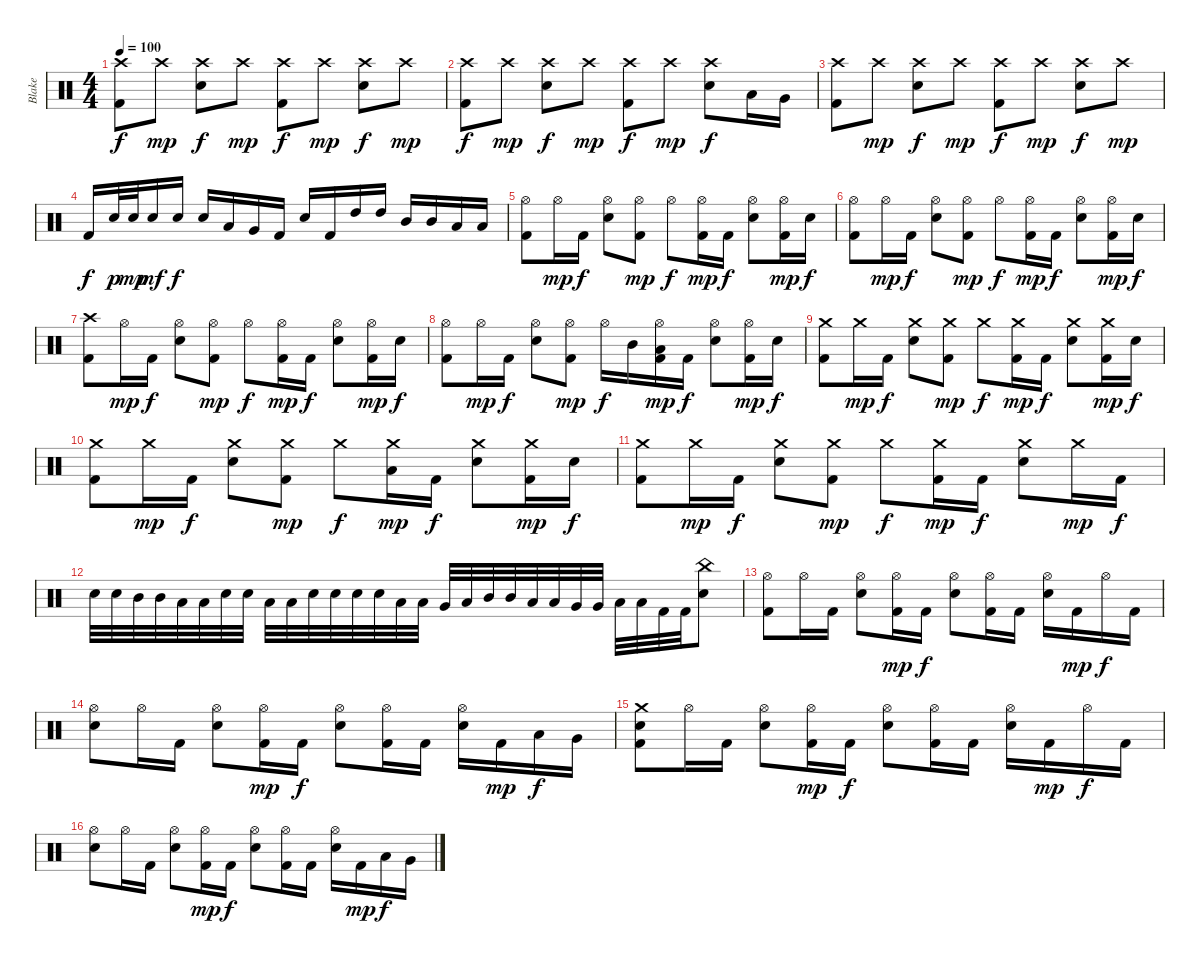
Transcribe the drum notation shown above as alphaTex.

\track ("Blake" "Blake") {instrument percussion}
\staff {score}
\articulation defaults
\ts (4 4)
\tempo 100
\clef neutral
\ks c
("Crash high (hit)" "Kick (hit) 2").8{dy f} "Crash high (hit)".8{dy mp} ("Crash high (hit)" "Snare (hit) 2").8{dy f} "Crash high (hit)".8{dy mp} ("Crash high (hit)" "Kick (hit) 2").8{dy f} "Crash high (hit)".8{dy mp} ("Crash high (hit)" "Snare (hit) 2").8{dy f} "Crash high (hit)".8{dy mp} |
("Crash high (hit)" "Kick (hit) 2").8{dy f} "Crash high (hit)".8{dy mp} ("Crash high (hit)" "Snare (hit) 2").8{dy f} "Crash high (hit)".8{dy mp} ("Crash high (hit)" "Kick (hit) 2").8{dy f} "Crash high (hit)".8{dy mp} ("Crash high (hit)" "Snare (hit) 2").8{dy f} "Low Tom (hit)".16 "Very Low Tom (hit)".16 |
("Crash high (hit)" "Kick (hit) 2").8 "Crash high (hit)".8{dy mp} ("Crash high (hit)" "Snare (hit) 2").8{dy f} "Crash high (hit)".8{dy mp} ("Crash high (hit)" "Kick (hit) 2").8{dy f} "Crash high (hit)".8{dy mp} ("Crash high (hit)" "Snare (hit) 2").8{dy f} "Crash high (hit)".8{dy mp} |
"Kick (hit) 2".16{dy f} "Snare (hit) 2".32{dy p} "Snare (hit) 2".32{dy mp} "Snare (hit) 2".16{dy mf} "Snare (hit) 2".16{dy f} "Snare (hit) 2".16 "Low Tom (hit)".16 "Very Low Tom (hit)".16 "Kick (hit) 2".16 "Snare (hit) 2".16 "Kick (hit) 2".16 "High Tom (hit)".16 "High Tom (hit)".16 "Mid Tom (hit)".16 "Mid Tom (hit)".16 "Low Tom (hit)".16 "Low Tom (hit)".16 |
("Hi-Hat (open)" "Kick (hit) 2").8 "Hi-Hat (open)".16{dy mp} "Kick (hit) 2".16{dy f} ("Hi-Hat (open)" "Snare (hit) 2").8 ("Hi-Hat (open)" "Kick (hit) 2").8{dy mp} "Hi-Hat (open)".8{dy f} ("Hi-Hat (open)" "Kick (hit) 2").16{dy mp} "Kick (hit) 2".16{dy f} ("Hi-Hat (open)" "Snare (hit) 2").8 ("Hi-Hat (open)" "Kick (hit) 2").16{dy mp} "Snare (hit) 2".16{dy f} |
("Hi-Hat (open)" "Kick (hit) 2").8 "Hi-Hat (open)".16{dy mp} "Kick (hit) 2".16{dy f} ("Hi-Hat (open)" "Snare (hit) 2").8 ("Hi-Hat (open)" "Kick (hit) 2").8{dy mp} "Hi-Hat (open)".8{dy f} ("Hi-Hat (open)" "Kick (hit) 2").16{dy mp} "Kick (hit) 2".16{dy f} ("Hi-Hat (open)" "Snare (hit) 2").8 ("Hi-Hat (open)" "Kick (hit) 2").16{dy mp} "Snare (hit) 2".16{dy f} |
("Crash high (hit)" "Kick (hit) 2").8 "Hi-Hat (open)".16{dy mp} "Kick (hit) 2".16{dy f} ("Hi-Hat (open)" "Snare (hit) 2").8 ("Hi-Hat (open)" "Kick (hit) 2").8{dy mp} "Hi-Hat (open)".8{dy f} ("Hi-Hat (open)" "Kick (hit) 2").16{dy mp} "Kick (hit) 2".16{dy f} ("Hi-Hat (open)" "Snare (hit) 2").8 ("Hi-Hat (open)" "Kick (hit) 2").16{dy mp} "Snare (hit) 2".16{dy f} |
("Hi-Hat (open)" "Kick (hit) 2").8 "Hi-Hat (open)".16{dy mp} "Kick (hit) 2".16{dy f} ("Hi-Hat (open)" "Snare (hit) 2").8 ("Hi-Hat (open)" "Kick (hit) 2").8{dy mp} "Hi-Hat (open)".16{dy f} "Mid Tom (hit)".16 ("Hi-Hat (open)" "Low Tom (hit)" "Kick (hit) 2").16{dy mp} "Kick (hit) 2".16{dy f} ("Hi-Hat (open)" "Snare (hit) 2").8 ("Hi-Hat (open)" "Kick (hit) 2").16{dy mp} "Snare (hit) 2".16{dy f} |
("Crash medium (hit)" "Kick (hit) 2").8 "Crash medium (hit)".16{dy mp} "Kick (hit) 2".16{dy f} ("Crash medium (hit)" "Snare (hit) 2").8 ("Crash medium (hit)" "Kick (hit) 2").8{dy mp} "Crash medium (hit)".8{dy f} ("Crash medium (hit)" "Kick (hit) 2").16{dy mp} "Kick (hit) 2".16{dy f} ("Crash medium (hit)" "Snare (hit) 2").8 ("Crash medium (hit)" "Kick (hit) 2").16{dy mp} "Snare (hit) 2".16{dy f} |
("Crash medium (hit)" "Kick (hit) 2").8 "Crash medium (hit)".16{dy mp} "Kick (hit) 2".16{dy f} ("Crash medium (hit)" "Snare (hit) 2").8 ("Crash medium (hit)" "Kick (hit) 2").8{dy mp} "Crash medium (hit)".8{dy f} ("Crash medium (hit)" "Low Tom (hit)").16{dy mp} "Kick (hit) 2".16{dy f} ("Crash medium (hit)" "Snare (hit) 2").8 ("Crash medium (hit)" "Kick (hit) 2").16{dy mp} "Snare (hit) 2".16{dy f} |
("Crash medium (hit)" "Kick (hit) 2").8 "Crash medium (hit)".16{dy mp} "Kick (hit) 2".16{dy f} ("Crash medium (hit)" "Snare (hit) 2").8 ("Crash medium (hit)" "Kick (hit) 2").8{dy mp} "Crash medium (hit)".8{dy f} ("Crash medium (hit)" "Kick (hit) 2").16{dy mp} "Kick (hit) 2".16{dy f} ("Crash medium (hit)" "Snare (hit) 2").8 "Crash medium (hit)".16{dy mp} "Kick (hit) 2".16{dy f} |
"Snare (hit) 2".32 "Snare (hit) 2".32 "Mid Tom (hit)".32 "Mid Tom (hit)".32 "Low Tom (hit)".32 "Low Tom (hit)".32 "Snare (hit) 2".32 "Snare (hit) 2".32 "Low Tom (hit)".32 "Low Tom (hit)".32 "Snare (hit) 2".32 "Snare (hit) 2".32 "Snare (hit) 2".32 "Snare (hit) 2".32 "Low Tom (hit)".32 "Low Tom (hit)".32 "Very Low Tom (hit)".32 "Low Floor Tom (hit)".32 "Mid Tom (hit)".32 "Mid Tom (hit)".32 "Low Tom (hit)".32 "Low Tom (hit)".32 "Very Low Tom (hit)".32 "Very Low Tom (hit)".32 "Low Floor Tom (hit)".32 "Low Floor Tom (hit)".32 "Kick (hit) 2".32 "Kick (hit) 2".32 ("China (hit)" "Snare (hit) 2").8 |
("Hi-Hat (open)" "Kick (hit) 2").8 "Hi-Hat (open)".16 "Kick (hit) 2".16 ("Hi-Hat (open)" "Snare (hit) 2").8 ("Hi-Hat (open)" "Kick (hit) 2").16{dy mp} "Kick (hit) 2".16{dy f} ("Hi-Hat (open)" "Snare (hit) 2").8 ("Hi-Hat (open)" "Kick (hit) 2").16 "Kick (hit) 2".16 ("Hi-Hat (open)" "Snare (hit) 2").16 "Kick (hit) 2".16{dy mp} "Hi-Hat (open)".16{dy f} "Kick (hit) 2".16 |
("Hi-Hat (open)" "Snare (hit) 2").8 "Hi-Hat (open)".16 "Kick (hit) 2".16 ("Hi-Hat (open)" "Snare (hit) 2").8 ("Hi-Hat (open)" "Kick (hit) 2").16{dy mp} "Kick (hit) 2".16{dy f} ("Hi-Hat (open)" "Snare (hit) 2").8 ("Hi-Hat (open)" "Kick (hit) 2").16 "Kick (hit) 2".16 ("Hi-Hat (open)" "Snare (hit) 2").16 "Kick (hit) 2".16{dy mp} "Low Tom (hit)".16{dy f} "Very Low Tom (hit)".16 |
("Crash medium (hit)" "Snare (hit) 2" "Kick (hit) 2").8 "Hi-Hat (open)".16 "Kick (hit) 2".16 ("Hi-Hat (open)" "Snare (hit) 2").8 ("Hi-Hat (open)" "Kick (hit) 2").16{dy mp} "Kick (hit) 2".16{dy f} ("Hi-Hat (open)" "Snare (hit) 2").8 ("Hi-Hat (open)" "Kick (hit) 2").16 "Kick (hit) 2".16 ("Hi-Hat (open)" "Snare (hit) 2").16 "Kick (hit) 2".16{dy mp} "Hi-Hat (open)".16{dy f} "Kick (hit) 2".16 |
("Hi-Hat (open)" "Snare (hit) 2").8 "Hi-Hat (open)".16 "Kick (hit) 2".16 ("Hi-Hat (open)" "Snare (hit) 2").8 ("Hi-Hat (open)" "Kick (hit) 2").16{dy mp} "Kick (hit) 2".16{dy f} ("Hi-Hat (open)" "Snare (hit) 2").8 ("Hi-Hat (open)" "Kick (hit) 2").16 "Kick (hit) 2".16 ("Hi-Hat (open)" "Snare (hit) 2").16 "Kick (hit) 2".16{dy mp} "Low Tom (hit)".16{dy f} "Very Low Tom (hit)".16
